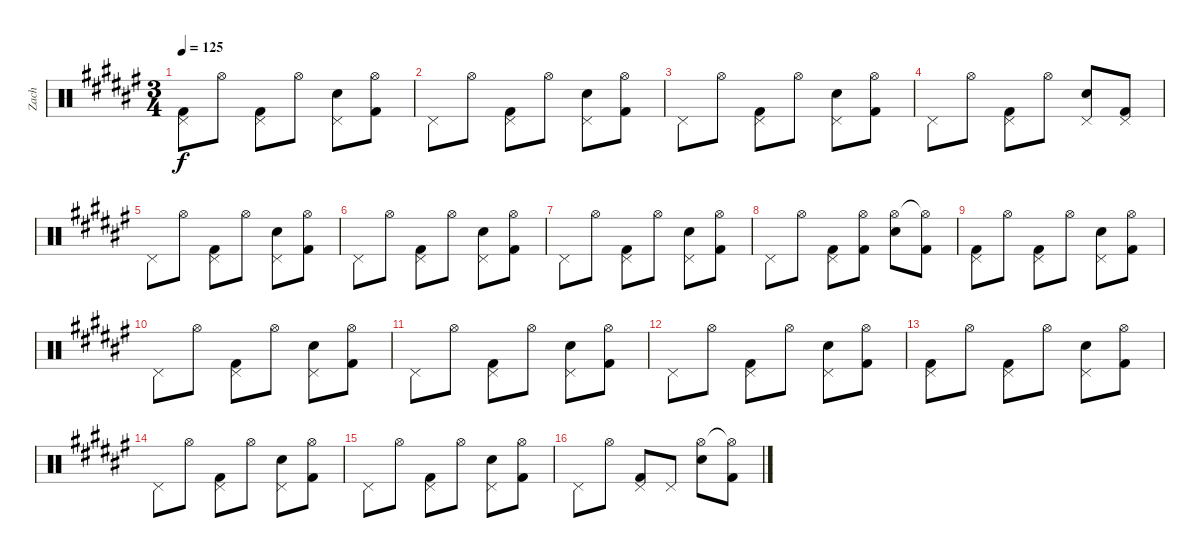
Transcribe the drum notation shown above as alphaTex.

\track ("Zach" "Zach") {instrument percussion}
\staff {score}
\articulation defaults
\ts (3 4)
\tempo 125
\clef neutral
\ks f#
("Pedal Hi-Hat (hit)" "Kick (hit) 2").8{dy f} "Hi-Hat (open)".8 ("Pedal Hi-Hat (hit)" "Kick (hit) 2").8 "Hi-Hat (open)".8 ("Pedal Hi-Hat (hit)" "Snare (hit) 2").8 ("Hi-Hat (open)" "Kick (hit) 2").8 |
"Pedal Hi-Hat (hit)".8 "Hi-Hat (open)".8 ("Pedal Hi-Hat (hit)" "Kick (hit) 2").8 "Hi-Hat (open)".8 ("Pedal Hi-Hat (hit)" "Snare (hit) 2").8 ("Hi-Hat (open)" "Kick (hit) 2").8 |
"Pedal Hi-Hat (hit)".8 "Hi-Hat (open)".8 ("Pedal Hi-Hat (hit)" "Kick (hit) 2").8 "Hi-Hat (open)".8 ("Pedal Hi-Hat (hit)" "Snare (hit) 2").8 ("Hi-Hat (open)" "Kick (hit) 2").8 |
"Pedal Hi-Hat (hit)".8 "Hi-Hat (open)".8 ("Pedal Hi-Hat (hit)" "Kick (hit) 2").8 "Hi-Hat (open)".8 ("Pedal Hi-Hat (hit)" "Snare (hit) 2").8 ("Pedal Hi-Hat (hit)" "Kick (hit) 2").8 |
"Pedal Hi-Hat (hit)".8 "Hi-Hat (open)".8 ("Pedal Hi-Hat (hit)" "Kick (hit) 2").8 "Hi-Hat (open)".8 ("Pedal Hi-Hat (hit)" "Snare (hit) 2").8 ("Hi-Hat (open)" "Kick (hit) 2").8 |
"Pedal Hi-Hat (hit)".8 "Hi-Hat (open)".8 ("Pedal Hi-Hat (hit)" "Kick (hit) 2").8 "Hi-Hat (open)".8 ("Pedal Hi-Hat (hit)" "Snare (hit) 2").8 ("Hi-Hat (open)" "Kick (hit) 2").8 |
"Pedal Hi-Hat (hit)".8 "Hi-Hat (open)".8 ("Pedal Hi-Hat (hit)" "Kick (hit) 2").8 "Hi-Hat (open)".8 ("Pedal Hi-Hat (hit)" "Snare (hit) 2").8 ("Hi-Hat (open)" "Kick (hit) 2").8 |
"Pedal Hi-Hat (hit)".8 "Hi-Hat (open)".8 ("Pedal Hi-Hat (hit)" "Kick (hit) 2").8 ("Hi-Hat (open)" "Kick (hit) 2").8 ("Hi-Hat (open)" "Snare (hit) 2").8 ("Hi-Hat (open)"{t} "Kick (hit) 2").8 |
("Pedal Hi-Hat (hit)" "Kick (hit) 2").8 "Hi-Hat (open)".8 ("Pedal Hi-Hat (hit)" "Kick (hit) 2").8 "Hi-Hat (open)".8 ("Pedal Hi-Hat (hit)" "Snare (hit) 2").8 ("Hi-Hat (open)" "Kick (hit) 2").8 |
"Pedal Hi-Hat (hit)".8 "Hi-Hat (open)".8 ("Pedal Hi-Hat (hit)" "Kick (hit) 2").8 "Hi-Hat (open)".8 ("Pedal Hi-Hat (hit)" "Snare (hit) 2").8 ("Hi-Hat (open)" "Kick (hit) 2").8 |
"Pedal Hi-Hat (hit)".8 "Hi-Hat (open)".8 ("Pedal Hi-Hat (hit)" "Kick (hit) 2").8 "Hi-Hat (open)".8 ("Pedal Hi-Hat (hit)" "Snare (hit) 2").8 ("Hi-Hat (open)" "Kick (hit) 2").8 |
"Pedal Hi-Hat (hit)".8 "Hi-Hat (open)".8 ("Pedal Hi-Hat (hit)" "Kick (hit) 2").8 "Hi-Hat (open)".8 ("Pedal Hi-Hat (hit)" "Snare (hit) 2").8 ("Hi-Hat (open)" "Kick (hit) 2").8 |
("Pedal Hi-Hat (hit)" "Kick (hit) 2").8 "Hi-Hat (open)".8 ("Pedal Hi-Hat (hit)" "Kick (hit) 2").8 "Hi-Hat (open)".8 ("Pedal Hi-Hat (hit)" "Snare (hit) 2").8 ("Hi-Hat (open)" "Kick (hit) 2").8 |
"Pedal Hi-Hat (hit)".8 "Hi-Hat (open)".8 ("Pedal Hi-Hat (hit)" "Kick (hit) 2").8 "Hi-Hat (open)".8 ("Pedal Hi-Hat (hit)" "Snare (hit) 2").8 ("Hi-Hat (open)" "Kick (hit) 2").8 |
"Pedal Hi-Hat (hit)".8 "Hi-Hat (open)".8 ("Pedal Hi-Hat (hit)" "Kick (hit) 2").8 "Hi-Hat (open)".8 ("Pedal Hi-Hat (hit)" "Snare (hit) 2").8 ("Hi-Hat (open)" "Kick (hit) 2").8 |
"Pedal Hi-Hat (hit)".8 "Hi-Hat (open)".8 ("Pedal Hi-Hat (hit)" "Kick (hit) 2").8 "Pedal Hi-Hat (hit)".8 ("Hi-Hat (open)" "Snare (hit) 2").8 ("Hi-Hat (open)"{t} "Kick (hit) 2").8
